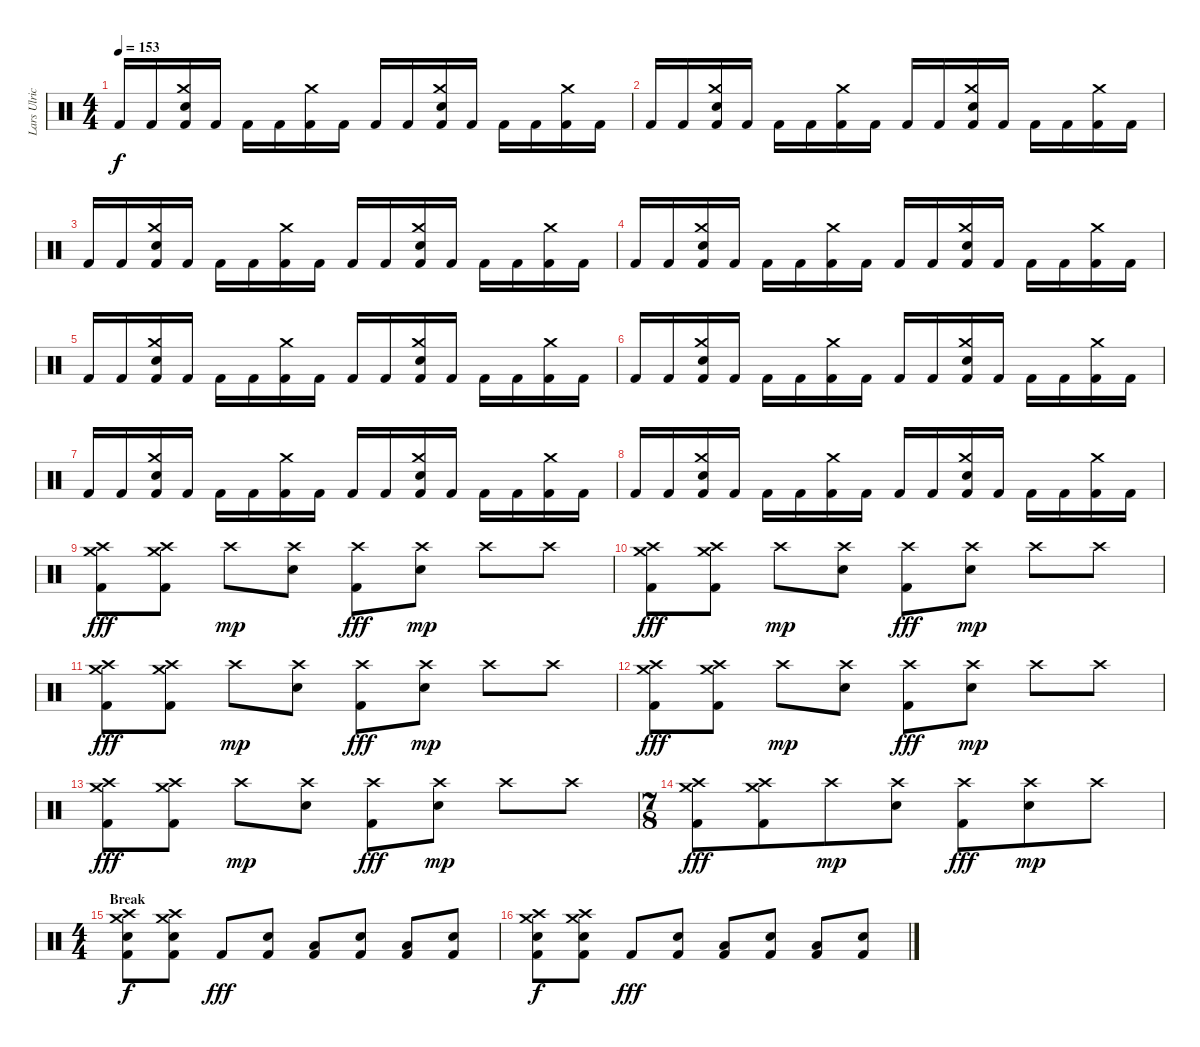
\track ("Lars Ulrich (Drums)" "Lars Ulric") {instrument percussion}
\staff {score}
\articulation defaults
\ts (4 4)
\tempo 153
\clef neutral
\ks c "Kick (hit) 2".16{dy f} "Kick (hit) 2".16
("Crash medium (hit)" "Electric Snare (hit)" "Kick (hit) 2").16 "Kick (hit) 2".16 "Kick (hit) 2".16 "Kick (hit) 2".16 ("Crash medium (hit)" "Kick (hit) 2").16 "Kick (hit) 2".16 "Kick (hit) 2".16 "Kick (hit) 2".16 ("Crash medium (hit)" "Electric Snare (hit)" "Kick (hit) 2").16 "Kick (hit) 2".16 "Kick (hit) 2".16 "Kick (hit) 2".16 ("Crash medium (hit)" "Kick (hit) 2").16 "Kick (hit) 2".16 |
"Kick (hit) 2".16 "Kick (hit) 2".16 ("Crash medium (hit)" "Electric Snare (hit)" "Kick (hit) 2").16 "Kick (hit) 2".16 "Kick (hit) 2".16 "Kick (hit) 2".16 ("Crash medium (hit)" "Kick (hit) 2").16 "Kick (hit) 2".16 "Kick (hit) 2".16 "Kick (hit) 2".16 ("Crash medium (hit)" "Electric Snare (hit)" "Kick (hit) 2").16 "Kick (hit) 2".16 "Kick (hit) 2".16 "Kick (hit) 2".16 ("Crash medium (hit)" "Kick (hit) 2").16 "Kick (hit) 2".16 |
"Kick (hit) 2".16 "Kick (hit) 2".16 ("Crash medium (hit)" "Electric Snare (hit)" "Kick (hit) 2").16 "Kick (hit) 2".16 "Kick (hit) 2".16 "Kick (hit) 2".16 ("Crash medium (hit)" "Kick (hit) 2").16 "Kick (hit) 2".16 "Kick (hit) 2".16 "Kick (hit) 2".16 ("Crash medium (hit)" "Electric Snare (hit)" "Kick (hit) 2").16 "Kick (hit) 2".16 "Kick (hit) 2".16 "Kick (hit) 2".16 ("Crash medium (hit)" "Kick (hit) 2").16 "Kick (hit) 2".16 |
"Kick (hit) 2".16 "Kick (hit) 2".16 ("Crash medium (hit)" "Electric Snare (hit)" "Kick (hit) 2").16 "Kick (hit) 2".16 "Kick (hit) 2".16 "Kick (hit) 2".16 ("Crash medium (hit)" "Kick (hit) 2").16 "Kick (hit) 2".16 "Kick (hit) 2".16 "Kick (hit) 2".16 ("Crash medium (hit)" "Electric Snare (hit)" "Kick (hit) 2").16 "Kick (hit) 2".16 "Kick (hit) 2".16 "Kick (hit) 2".16 ("Crash medium (hit)" "Kick (hit) 2").16 "Kick (hit) 2".16 |
"Kick (hit) 2".16 "Kick (hit) 2".16 ("Crash medium (hit)" "Electric Snare (hit)" "Kick (hit) 2").16 "Kick (hit) 2".16 "Kick (hit) 2".16 "Kick (hit) 2".16 ("Crash medium (hit)" "Kick (hit) 2").16 "Kick (hit) 2".16 "Kick (hit) 2".16 "Kick (hit) 2".16 ("Crash medium (hit)" "Electric Snare (hit)" "Kick (hit) 2").16 "Kick (hit) 2".16 "Kick (hit) 2".16 "Kick (hit) 2".16 ("Crash medium (hit)" "Kick (hit) 2").16 "Kick (hit) 2".16 |
"Kick (hit) 2".16 "Kick (hit) 2".16 ("Crash medium (hit)" "Electric Snare (hit)" "Kick (hit) 2").16 "Kick (hit) 2".16 "Kick (hit) 2".16 "Kick (hit) 2".16 ("Crash medium (hit)" "Kick (hit) 2").16 "Kick (hit) 2".16 "Kick (hit) 2".16 "Kick (hit) 2".16 ("Crash medium (hit)" "Electric Snare (hit)" "Kick (hit) 2").16 "Kick (hit) 2".16 "Kick (hit) 2".16 "Kick (hit) 2".16 ("Crash medium (hit)" "Kick (hit) 2").16 "Kick (hit) 2".16 |
"Kick (hit) 2".16 "Kick (hit) 2".16 ("Crash medium (hit)" "Electric Snare (hit)" "Kick (hit) 2").16 "Kick (hit) 2".16 "Kick (hit) 2".16 "Kick (hit) 2".16 ("Crash medium (hit)" "Kick (hit) 2").16 "Kick (hit) 2".16 "Kick (hit) 2".16 "Kick (hit) 2".16 ("Crash medium (hit)" "Electric Snare (hit)" "Kick (hit) 2").16 "Kick (hit) 2".16 "Kick (hit) 2".16 "Kick (hit) 2".16 ("Crash medium (hit)" "Kick (hit) 2").16 "Kick (hit) 2".16 |
"Kick (hit) 2".16 "Kick (hit) 2".16 ("Crash medium (hit)" "Electric Snare (hit)" "Kick (hit) 2").16 "Kick (hit) 2".16 "Kick (hit) 2".16 "Kick (hit) 2".16 ("Crash medium (hit)" "Kick (hit) 2").16 "Kick (hit) 2".16 "Kick (hit) 2".16 "Kick (hit) 2".16 ("Crash medium (hit)" "Electric Snare (hit)" "Kick (hit) 2").16 "Kick (hit) 2".16 "Kick (hit) 2".16 "Kick (hit) 2".16 ("Crash medium (hit)" "Kick (hit) 2").16 "Kick (hit) 2".16 |
("Crash high (hit)" "Crash medium (hit)" "Kick (hit) 2").8{dy fff} ("Crash high (hit)" "Crash medium (hit)" "Kick (hit) 2").8 "Crash high (hit)".8{dy mp} ("Crash high (hit)" "Electric Snare (hit)").8 ("Crash high (hit)" "Kick (hit) 2").8{dy fff} ("Crash high (hit)" "Electric Snare (hit)").8{dy mp} "Crash high (hit)".8 "Crash high (hit)".8 |
("Crash high (hit)" "Crash medium (hit)" "Kick (hit) 2").8{dy fff} ("Crash high (hit)" "Crash medium (hit)" "Kick (hit) 2").8 "Crash high (hit)".8{dy mp} ("Crash high (hit)" "Electric Snare (hit)").8 ("Crash high (hit)" "Kick (hit) 2").8{dy fff} ("Crash high (hit)" "Electric Snare (hit)").8{dy mp} "Crash high (hit)".8 "Crash high (hit)".8 |
("Crash high (hit)" "Crash medium (hit)" "Kick (hit) 2").8{dy fff} ("Crash high (hit)" "Crash medium (hit)" "Kick (hit) 2").8 "Crash high (hit)".8{dy mp} ("Crash high (hit)" "Electric Snare (hit)").8 ("Crash high (hit)" "Kick (hit) 2").8{dy fff} ("Crash high (hit)" "Electric Snare (hit)").8{dy mp} "Crash high (hit)".8 "Crash high (hit)".8 |
("Crash high (hit)" "Crash medium (hit)" "Kick (hit) 2").8{dy fff} ("Crash high (hit)" "Crash medium (hit)" "Kick (hit) 2").8 "Crash high (hit)".8{dy mp} ("Crash high (hit)" "Electric Snare (hit)").8 ("Crash high (hit)" "Kick (hit) 2").8{dy fff} ("Crash high (hit)" "Electric Snare (hit)").8{dy mp} "Crash high (hit)".8 "Crash high (hit)".8 |
("Crash high (hit)" "Crash medium (hit)" "Kick (hit) 2").8{dy fff} ("Crash high (hit)" "Crash medium (hit)" "Kick (hit) 2").8 "Crash high (hit)".8{dy mp} ("Crash high (hit)" "Electric Snare (hit)").8 ("Crash high (hit)" "Kick (hit) 2").8{dy fff} ("Crash high (hit)" "Electric Snare (hit)").8{dy mp} "Crash high (hit)".8 "Crash high (hit)".8 |
\ts (7 8)
("Crash high (hit)" "Crash medium (hit)" "Kick (hit) 2").8{dy fff} ("Crash high (hit)" "Crash medium (hit)" "Kick (hit) 2").8 "Crash high (hit)".8{dy mp} ("Crash high (hit)" "Electric Snare (hit)").8 ("Crash high (hit)" "Kick (hit) 2").8{dy fff} ("Crash high (hit)" "Electric Snare (hit)").8{dy mp} "Crash high (hit)".8 |
\ts (4 4)
\section ("" "Break")
("Crash medium (hit)" "Crash high (hit)" "Electric Snare (hit)" "Kick (hit) 2").8{dy f} ("Crash medium (hit)" "Crash high (hit)" "Electric Snare (hit)" "Kick (hit) 2").8 "Kick (hit) 2".8{dy fff} ("Electric Snare (hit)" "Kick (hit) 2").8 ("Low Floor Tom (hit)" "Kick (hit) 2").8 ("Electric Snare (hit)" "Kick (hit) 2").8 ("Low Floor Tom (hit)" "Kick (hit) 2").8 ("Electric Snare (hit)" "Kick (hit) 2").8 |
("Crash medium (hit)" "Crash high (hit)" "Electric Snare (hit)" "Kick (hit) 2").8{dy f} ("Crash medium (hit)" "Crash high (hit)" "Electric Snare (hit)" "Kick (hit) 2").8 "Kick (hit) 2".8{dy fff} ("Electric Snare (hit)" "Kick (hit) 2").8 ("Low Floor Tom (hit)" "Kick (hit) 2").8 ("Electric Snare (hit)" "Kick (hit) 2").8 ("Low Floor Tom (hit)" "Kick (hit) 2").8 ("Electric Snare (hit)" "Kick (hit) 2").8
